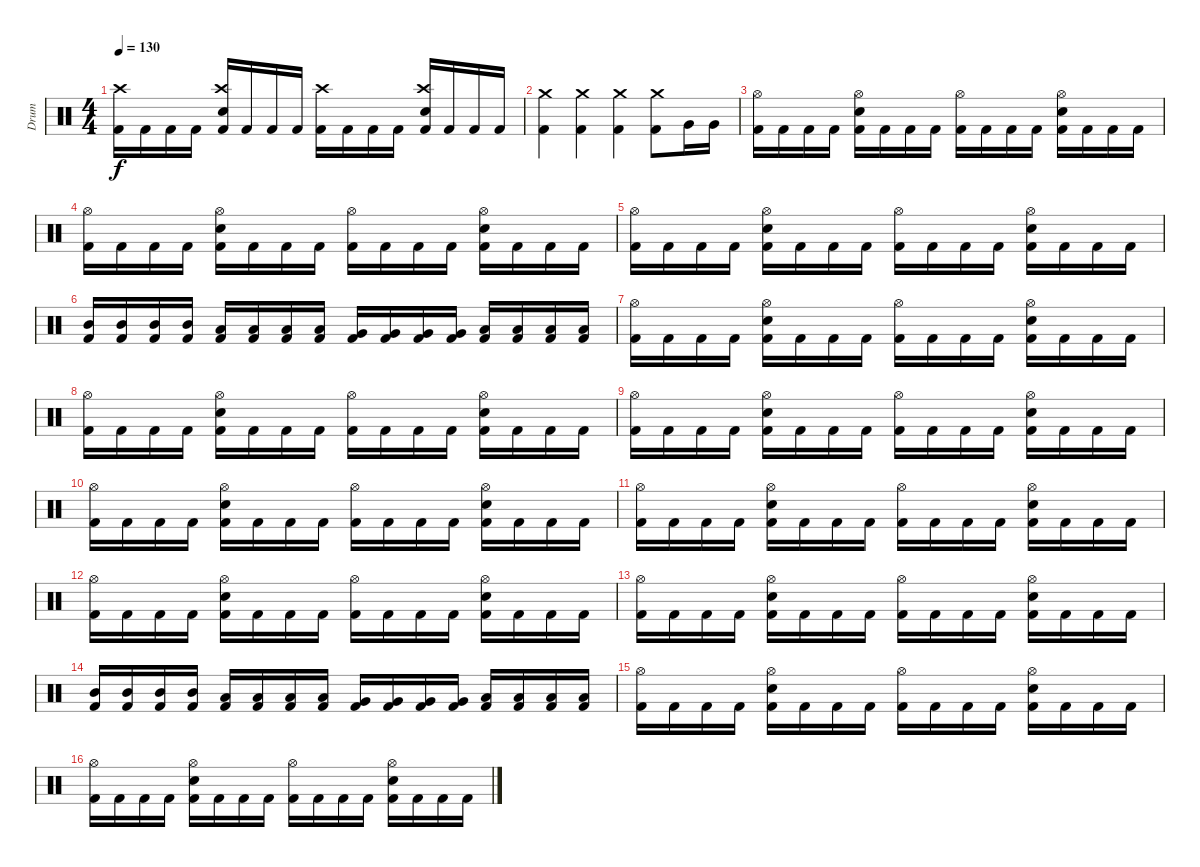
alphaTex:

\track ("Drum" "Drum") {instrument percussion}
\staff {score}
\articulation defaults
\ts (4 4)
\tempo 130
\clef neutral
\ks c
("Kick (hit) 2" "Crash high (hit)").16{dy f} "Kick (hit) 2".16 "Kick (hit) 2".16 "Kick (hit) 2".16 ("Kick (hit) 2" "Electric Snare (hit)" "Crash high (hit)").16 "Kick (hit) 2".16 "Kick (hit) 2".16 "Kick (hit) 2".16 ("Kick (hit) 2" "Crash high (hit)").16 "Kick (hit) 2".16 "Kick (hit) 2".16 "Kick (hit) 2".16 ("Kick (hit) 2" "Electric Snare (hit)" "Crash high (hit)").16 "Kick (hit) 2".16 "Kick (hit) 2".16 "Kick (hit) 2".16 |
("Kick (hit) 2" "Crash medium (hit)").4 ("Kick (hit) 2" "Crash medium (hit)").4 ("Kick (hit) 2" "Crash medium (hit)").4 ("Kick (hit) 2" "Crash medium (hit)").8 "Very Low Tom (hit)".16 "Very Low Tom (hit)".16 |
("Kick (hit) 2" "Hi-Hat (open)").16 "Kick (hit) 2".16 "Kick (hit) 2".16 "Kick (hit) 2".16 ("Kick (hit) 2" "Electric Snare (hit)" "Hi-Hat (open)").16 "Kick (hit) 2".16 "Kick (hit) 2".16 "Kick (hit) 2".16 ("Kick (hit) 2" "Hi-Hat (open)").16 "Kick (hit) 2".16 "Kick (hit) 2".16 "Kick (hit) 2".16 ("Kick (hit) 2" "Electric Snare (hit)" "Hi-Hat (open)").16 "Kick (hit) 2".16 "Kick (hit) 2".16 "Kick (hit) 2".16 |
("Kick (hit) 2" "Hi-Hat (open)").16 "Kick (hit) 2".16 "Kick (hit) 2".16 "Kick (hit) 2".16 ("Kick (hit) 2" "Electric Snare (hit)" "Hi-Hat (open)").16 "Kick (hit) 2".16 "Kick (hit) 2".16 "Kick (hit) 2".16 ("Kick (hit) 2" "Hi-Hat (open)").16 "Kick (hit) 2".16 "Kick (hit) 2".16 "Kick (hit) 2".16 ("Kick (hit) 2" "Electric Snare (hit)" "Hi-Hat (open)").16 "Kick (hit) 2".16 "Kick (hit) 2".16 "Kick (hit) 2".16 |
("Kick (hit) 2" "Hi-Hat (open)").16 "Kick (hit) 2".16 "Kick (hit) 2".16 "Kick (hit) 2".16 ("Kick (hit) 2" "Electric Snare (hit)" "Hi-Hat (open)").16 "Kick (hit) 2".16 "Kick (hit) 2".16 "Kick (hit) 2".16 ("Kick (hit) 2" "Hi-Hat (open)").16 "Kick (hit) 2".16 "Kick (hit) 2".16 "Kick (hit) 2".16 ("Kick (hit) 2" "Electric Snare (hit)" "Hi-Hat (open)").16 "Kick (hit) 2".16 "Kick (hit) 2".16 "Kick (hit) 2".16 |
("Kick (hit) 2" "Mid Tom (hit)").16 ("Kick (hit) 2" "Mid Tom (hit)").16 ("Kick (hit) 2" "Mid Tom (hit)").16 ("Kick (hit) 2" "Mid Tom (hit)").16 ("Kick (hit) 2" "Low Tom (hit)").16 ("Kick (hit) 2" "Low Tom (hit)").16 ("Kick (hit) 2" "Low Tom (hit)").16 ("Kick (hit) 2" "Low Tom (hit)").16 ("Kick (hit) 2" "Very Low Tom (hit)").16 ("Kick (hit) 2" "Very Low Tom (hit)").16 ("Kick (hit) 2" "Very Low Tom (hit)").16 ("Kick (hit) 2" "Very Low Tom (hit)").16 ("Kick (hit) 2" "Low Floor Tom (hit)").16 ("Kick (hit) 2" "Low Floor Tom (hit)").16 ("Kick (hit) 2" "Low Floor Tom (hit)").16 ("Kick (hit) 2" "Low Floor Tom (hit)").16 |
("Kick (hit) 2" "Hi-Hat (open)").16 "Kick (hit) 2".16 "Kick (hit) 2".16 "Kick (hit) 2".16 ("Kick (hit) 2" "Electric Snare (hit)" "Hi-Hat (open)").16 "Kick (hit) 2".16 "Kick (hit) 2".16 "Kick (hit) 2".16 ("Kick (hit) 2" "Hi-Hat (open)").16 "Kick (hit) 2".16 "Kick (hit) 2".16 "Kick (hit) 2".16 ("Kick (hit) 2" "Electric Snare (hit)" "Hi-Hat (open)").16 "Kick (hit) 2".16 "Kick (hit) 2".16 "Kick (hit) 2".16 |
("Kick (hit) 2" "Hi-Hat (open)").16 "Kick (hit) 2".16 "Kick (hit) 2".16 "Kick (hit) 2".16 ("Kick (hit) 2" "Electric Snare (hit)" "Hi-Hat (open)").16 "Kick (hit) 2".16 "Kick (hit) 2".16 "Kick (hit) 2".16 ("Kick (hit) 2" "Hi-Hat (open)").16 "Kick (hit) 2".16 "Kick (hit) 2".16 "Kick (hit) 2".16 ("Kick (hit) 2" "Electric Snare (hit)" "Hi-Hat (open)").16 "Kick (hit) 2".16 "Kick (hit) 2".16 "Kick (hit) 2".16 |
("Kick (hit) 2" "Hi-Hat (open)").16 "Kick (hit) 2".16 "Kick (hit) 2".16 "Kick (hit) 2".16 ("Kick (hit) 2" "Electric Snare (hit)" "Hi-Hat (open)").16 "Kick (hit) 2".16 "Kick (hit) 2".16 "Kick (hit) 2".16 ("Kick (hit) 2" "Hi-Hat (open)").16 "Kick (hit) 2".16 "Kick (hit) 2".16 "Kick (hit) 2".16 ("Kick (hit) 2" "Electric Snare (hit)" "Hi-Hat (open)").16 "Kick (hit) 2".16 "Kick (hit) 2".16 "Kick (hit) 2".16 |
("Kick (hit) 2" "Hi-Hat (open)").16 "Kick (hit) 2".16 "Kick (hit) 2".16 "Kick (hit) 2".16 ("Kick (hit) 2" "Electric Snare (hit)" "Hi-Hat (open)").16 "Kick (hit) 2".16 "Kick (hit) 2".16 "Kick (hit) 2".16 ("Kick (hit) 2" "Hi-Hat (open)").16 "Kick (hit) 2".16 "Kick (hit) 2".16 "Kick (hit) 2".16 ("Kick (hit) 2" "Electric Snare (hit)" "Hi-Hat (open)").16 "Kick (hit) 2".16 "Kick (hit) 2".16 "Kick (hit) 2".16 |
("Kick (hit) 2" "Hi-Hat (open)").16 "Kick (hit) 2".16 "Kick (hit) 2".16 "Kick (hit) 2".16 ("Kick (hit) 2" "Electric Snare (hit)" "Hi-Hat (open)").16 "Kick (hit) 2".16 "Kick (hit) 2".16 "Kick (hit) 2".16 ("Kick (hit) 2" "Hi-Hat (open)").16 "Kick (hit) 2".16 "Kick (hit) 2".16 "Kick (hit) 2".16 ("Kick (hit) 2" "Electric Snare (hit)" "Hi-Hat (open)").16 "Kick (hit) 2".16 "Kick (hit) 2".16 "Kick (hit) 2".16 |
("Kick (hit) 2" "Hi-Hat (open)").16 "Kick (hit) 2".16 "Kick (hit) 2".16 "Kick (hit) 2".16 ("Kick (hit) 2" "Electric Snare (hit)" "Hi-Hat (open)").16 "Kick (hit) 2".16 "Kick (hit) 2".16 "Kick (hit) 2".16 ("Kick (hit) 2" "Hi-Hat (open)").16 "Kick (hit) 2".16 "Kick (hit) 2".16 "Kick (hit) 2".16 ("Kick (hit) 2" "Electric Snare (hit)" "Hi-Hat (open)").16 "Kick (hit) 2".16 "Kick (hit) 2".16 "Kick (hit) 2".16 |
("Kick (hit) 2" "Hi-Hat (open)").16 "Kick (hit) 2".16 "Kick (hit) 2".16 "Kick (hit) 2".16 ("Kick (hit) 2" "Electric Snare (hit)" "Hi-Hat (open)").16 "Kick (hit) 2".16 "Kick (hit) 2".16 "Kick (hit) 2".16 ("Kick (hit) 2" "Hi-Hat (open)").16 "Kick (hit) 2".16 "Kick (hit) 2".16 "Kick (hit) 2".16 ("Kick (hit) 2" "Electric Snare (hit)" "Hi-Hat (open)").16 "Kick (hit) 2".16 "Kick (hit) 2".16 "Kick (hit) 2".16 |
("Kick (hit) 2" "Mid Tom (hit)").16 ("Kick (hit) 2" "Mid Tom (hit)").16 ("Kick (hit) 2" "Mid Tom (hit)").16 ("Kick (hit) 2" "Mid Tom (hit)").16 ("Kick (hit) 2" "Low Tom (hit)").16 ("Kick (hit) 2" "Low Tom (hit)").16 ("Kick (hit) 2" "Low Tom (hit)").16 ("Kick (hit) 2" "Low Tom (hit)").16 ("Kick (hit) 2" "Very Low Tom (hit)").16 ("Kick (hit) 2" "Very Low Tom (hit)").16 ("Kick (hit) 2" "Very Low Tom (hit)").16 ("Kick (hit) 2" "Very Low Tom (hit)").16 ("Kick (hit) 2" "Low Floor Tom (hit)").16 ("Kick (hit) 2" "Low Floor Tom (hit)").16 ("Kick (hit) 2" "Low Floor Tom (hit)").16 ("Kick (hit) 2" "Low Floor Tom (hit)").16 |
("Kick (hit) 2" "Hi-Hat (open)").16 "Kick (hit) 2".16 "Kick (hit) 2".16 "Kick (hit) 2".16 ("Kick (hit) 2" "Electric Snare (hit)" "Hi-Hat (open)").16 "Kick (hit) 2".16 "Kick (hit) 2".16 "Kick (hit) 2".16 ("Kick (hit) 2" "Hi-Hat (open)").16 "Kick (hit) 2".16 "Kick (hit) 2".16 "Kick (hit) 2".16 ("Kick (hit) 2" "Electric Snare (hit)" "Hi-Hat (open)").16 "Kick (hit) 2".16 "Kick (hit) 2".16 "Kick (hit) 2".16 |
("Kick (hit) 2" "Hi-Hat (open)").16 "Kick (hit) 2".16 "Kick (hit) 2".16 "Kick (hit) 2".16 ("Kick (hit) 2" "Electric Snare (hit)" "Hi-Hat (open)").16 "Kick (hit) 2".16 "Kick (hit) 2".16 "Kick (hit) 2".16 ("Kick (hit) 2" "Hi-Hat (open)").16 "Kick (hit) 2".16 "Kick (hit) 2".16 "Kick (hit) 2".16 ("Kick (hit) 2" "Electric Snare (hit)" "Hi-Hat (open)").16 "Kick (hit) 2".16 "Kick (hit) 2".16 "Kick (hit) 2".16
